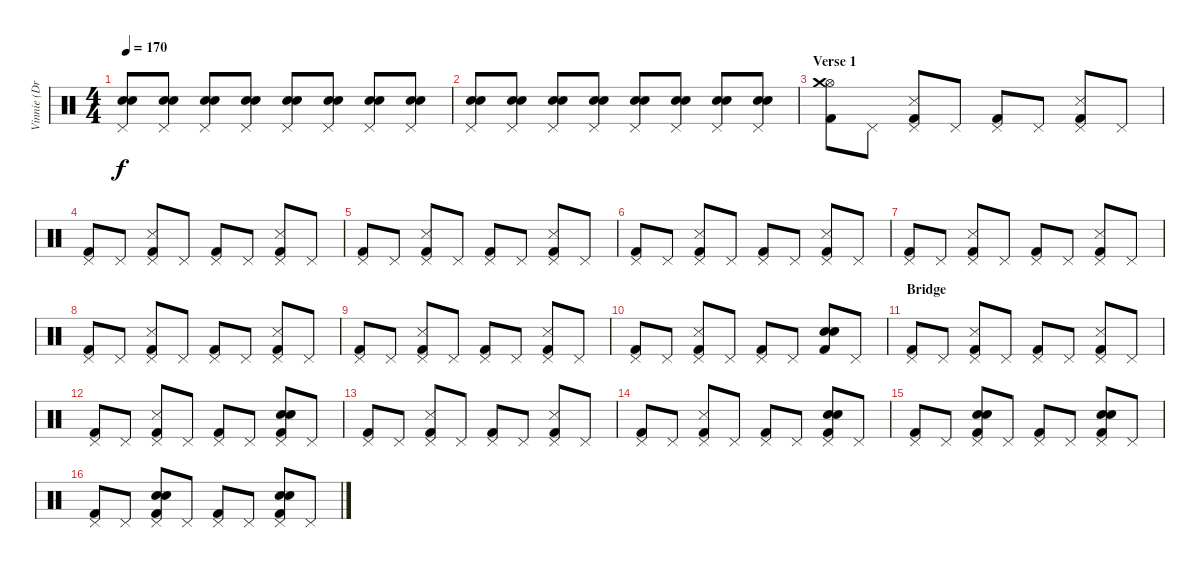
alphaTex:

\track ("Vinnie (Drums)" "Vinnie (Dr") {instrument percussion}
\staff {score}
\articulation defaults
\ts (4 4)
\tempo 170
\clef neutral
\ks c
("Snare (hit) 2" "Electric Snare (hit)" "Pedal Hi-Hat (hit)").8{dy f} ("Snare (hit) 2" "Electric Snare (hit)" "Pedal Hi-Hat (hit)").8 ("Snare (hit) 2" "Electric Snare (hit)" "Pedal Hi-Hat (hit)").8 ("Snare (hit) 2" "Electric Snare (hit)" "Pedal Hi-Hat (hit)").8 ("Snare (hit) 2" "Electric Snare (hit)" "Pedal Hi-Hat (hit)").8 ("Snare (hit) 2" "Electric Snare (hit)" "Pedal Hi-Hat (hit)").8 ("Snare (hit) 2" "Electric Snare (hit)" "Pedal Hi-Hat (hit)").8 ("Snare (hit) 2" "Electric Snare (hit)" "Pedal Hi-Hat (hit)").8 |
("Snare (hit) 2" "Electric Snare (hit)" "Pedal Hi-Hat (hit)").8 ("Snare (hit) 2" "Electric Snare (hit)" "Pedal Hi-Hat (hit)").8 ("Snare (hit) 2" "Electric Snare (hit)" "Pedal Hi-Hat (hit)").8 ("Snare (hit) 2" "Electric Snare (hit)" "Pedal Hi-Hat (hit)").8 ("Snare (hit) 2" "Electric Snare (hit)" "Pedal Hi-Hat (hit)").8 ("Snare (hit) 2" "Electric Snare (hit)" "Pedal Hi-Hat (hit)").8 ("Snare (hit) 2" "Electric Snare (hit)" "Pedal Hi-Hat (hit)").8 ("Snare (hit) 2" "Electric Snare (hit)" "Pedal Hi-Hat (hit)").8 |
\section ("" "Verse 1")
("Kick (hit) 2" "Hi-Hat (open)" "Crash medium (hit)").8 "Pedal Hi-Hat (hit)".8 ("Kick (hit) 2" "Snare (side stick) 3" "Pedal Hi-Hat (hit)").8 "Pedal Hi-Hat (hit)".8 ("Kick (hit) 2" "Pedal Hi-Hat (hit)").8 "Pedal Hi-Hat (hit)".8 ("Kick (hit) 2" "Snare (side stick) 3" "Pedal Hi-Hat (hit)").8 "Pedal Hi-Hat (hit)".8 |
("Kick (hit) 2" "Pedal Hi-Hat (hit)").8 "Pedal Hi-Hat (hit)".8 ("Kick (hit) 2" "Snare (side stick) 3" "Pedal Hi-Hat (hit)").8 "Pedal Hi-Hat (hit)".8 ("Kick (hit) 2" "Pedal Hi-Hat (hit)").8 "Pedal Hi-Hat (hit)".8 ("Kick (hit) 2" "Snare (side stick) 3" "Pedal Hi-Hat (hit)").8 "Pedal Hi-Hat (hit)".8 |
("Kick (hit) 2" "Pedal Hi-Hat (hit)").8 "Pedal Hi-Hat (hit)".8 ("Kick (hit) 2" "Snare (side stick) 3" "Pedal Hi-Hat (hit)").8 "Pedal Hi-Hat (hit)".8 ("Kick (hit) 2" "Pedal Hi-Hat (hit)").8 "Pedal Hi-Hat (hit)".8 ("Kick (hit) 2" "Snare (side stick) 3" "Pedal Hi-Hat (hit)").8 "Pedal Hi-Hat (hit)".8 |
("Kick (hit) 2" "Pedal Hi-Hat (hit)").8 "Pedal Hi-Hat (hit)".8 ("Kick (hit) 2" "Snare (side stick) 3" "Pedal Hi-Hat (hit)").8 "Pedal Hi-Hat (hit)".8 ("Kick (hit) 2" "Pedal Hi-Hat (hit)").8 "Pedal Hi-Hat (hit)".8 ("Kick (hit) 2" "Snare (side stick) 3" "Pedal Hi-Hat (hit)").8 "Pedal Hi-Hat (hit)".8 |
("Kick (hit) 2" "Pedal Hi-Hat (hit)").8 "Pedal Hi-Hat (hit)".8 ("Kick (hit) 2" "Snare (side stick) 3" "Pedal Hi-Hat (hit)").8 "Pedal Hi-Hat (hit)".8 ("Kick (hit) 2" "Pedal Hi-Hat (hit)").8 "Pedal Hi-Hat (hit)".8 ("Kick (hit) 2" "Snare (side stick) 3" "Pedal Hi-Hat (hit)").8 "Pedal Hi-Hat (hit)".8 |
("Kick (hit) 2" "Pedal Hi-Hat (hit)").8 "Pedal Hi-Hat (hit)".8 ("Kick (hit) 2" "Snare (side stick) 3" "Pedal Hi-Hat (hit)").8 "Pedal Hi-Hat (hit)".8 ("Kick (hit) 2" "Pedal Hi-Hat (hit)").8 "Pedal Hi-Hat (hit)".8 ("Kick (hit) 2" "Snare (side stick) 3" "Pedal Hi-Hat (hit)").8 "Pedal Hi-Hat (hit)".8 |
("Kick (hit) 2" "Pedal Hi-Hat (hit)").8 "Pedal Hi-Hat (hit)".8 ("Kick (hit) 2" "Snare (side stick) 3" "Pedal Hi-Hat (hit)").8 "Pedal Hi-Hat (hit)".8 ("Kick (hit) 2" "Pedal Hi-Hat (hit)").8 "Pedal Hi-Hat (hit)".8 ("Kick (hit) 2" "Snare (side stick) 3" "Pedal Hi-Hat (hit)").8 "Pedal Hi-Hat (hit)".8 |
("Kick (hit) 2" "Pedal Hi-Hat (hit)").8 "Pedal Hi-Hat (hit)".8 ("Kick (hit) 2" "Snare (side stick) 3" "Pedal Hi-Hat (hit)").8 "Pedal Hi-Hat (hit)".8 ("Kick (hit) 2" "Pedal Hi-Hat (hit)").8 "Pedal Hi-Hat (hit)".8 ("Kick (hit) 2" "Electric Snare (hit)" "Snare (hit) 2").8 "Pedal Hi-Hat (hit)".8 |
\section ("" "Bridge")
("Kick (hit) 2" "Pedal Hi-Hat (hit)").8 "Pedal Hi-Hat (hit)".8 ("Kick (hit) 2" "Snare (side stick) 3" "Pedal Hi-Hat (hit)").8 "Pedal Hi-Hat (hit)".8 ("Kick (hit) 2" "Pedal Hi-Hat (hit)").8 "Pedal Hi-Hat (hit)".8 ("Kick (hit) 2" "Snare (side stick) 3" "Pedal Hi-Hat (hit)").8 "Pedal Hi-Hat (hit)".8 |
("Kick (hit) 2" "Pedal Hi-Hat (hit)").8 "Pedal Hi-Hat (hit)".8 ("Kick (hit) 2" "Snare (side stick) 3" "Pedal Hi-Hat (hit)").8 "Pedal Hi-Hat (hit)".8 ("Kick (hit) 2" "Pedal Hi-Hat (hit)").8 "Pedal Hi-Hat (hit)".8 ("Kick (hit) 2" "Snare (hit) 2" "Pedal Hi-Hat (hit)" "Electric Snare (hit)").8 "Pedal Hi-Hat (hit)".8 |
("Kick (hit) 2" "Pedal Hi-Hat (hit)").8 "Pedal Hi-Hat (hit)".8 ("Kick (hit) 2" "Snare (side stick) 3" "Pedal Hi-Hat (hit)").8 "Pedal Hi-Hat (hit)".8 ("Kick (hit) 2" "Pedal Hi-Hat (hit)").8 "Pedal Hi-Hat (hit)".8 ("Kick (hit) 2" "Snare (side stick) 3" "Pedal Hi-Hat (hit)").8 "Pedal Hi-Hat (hit)".8 |
("Kick (hit) 2" "Pedal Hi-Hat (hit)").8 "Pedal Hi-Hat (hit)".8 ("Kick (hit) 2" "Snare (side stick) 3" "Pedal Hi-Hat (hit)").8 "Pedal Hi-Hat (hit)".8 ("Kick (hit) 2" "Pedal Hi-Hat (hit)").8 "Pedal Hi-Hat (hit)".8 ("Kick (hit) 2" "Snare (hit) 2" "Pedal Hi-Hat (hit)" "Electric Snare (hit)").8 "Pedal Hi-Hat (hit)".8 |
("Kick (hit) 2" "Pedal Hi-Hat (hit)").8 "Pedal Hi-Hat (hit)".8 ("Kick (hit) 2" "Snare (hit) 2" "Pedal Hi-Hat (hit)" "Electric Snare (hit)").8 "Pedal Hi-Hat (hit)".8 ("Kick (hit) 2" "Pedal Hi-Hat (hit)").8 "Pedal Hi-Hat (hit)".8 ("Kick (hit) 2" "Snare (hit) 2" "Pedal Hi-Hat (hit)" "Electric Snare (hit)").8 "Pedal Hi-Hat (hit)".8 |
("Kick (hit) 2" "Pedal Hi-Hat (hit)").8 "Pedal Hi-Hat (hit)".8 ("Kick (hit) 2" "Snare (hit) 2" "Pedal Hi-Hat (hit)" "Electric Snare (hit)").8 "Pedal Hi-Hat (hit)".8 ("Kick (hit) 2" "Pedal Hi-Hat (hit)").8 "Pedal Hi-Hat (hit)".8 ("Kick (hit) 2" "Snare (hit) 2" "Pedal Hi-Hat (hit)" "Electric Snare (hit)").8 "Pedal Hi-Hat (hit)".8
